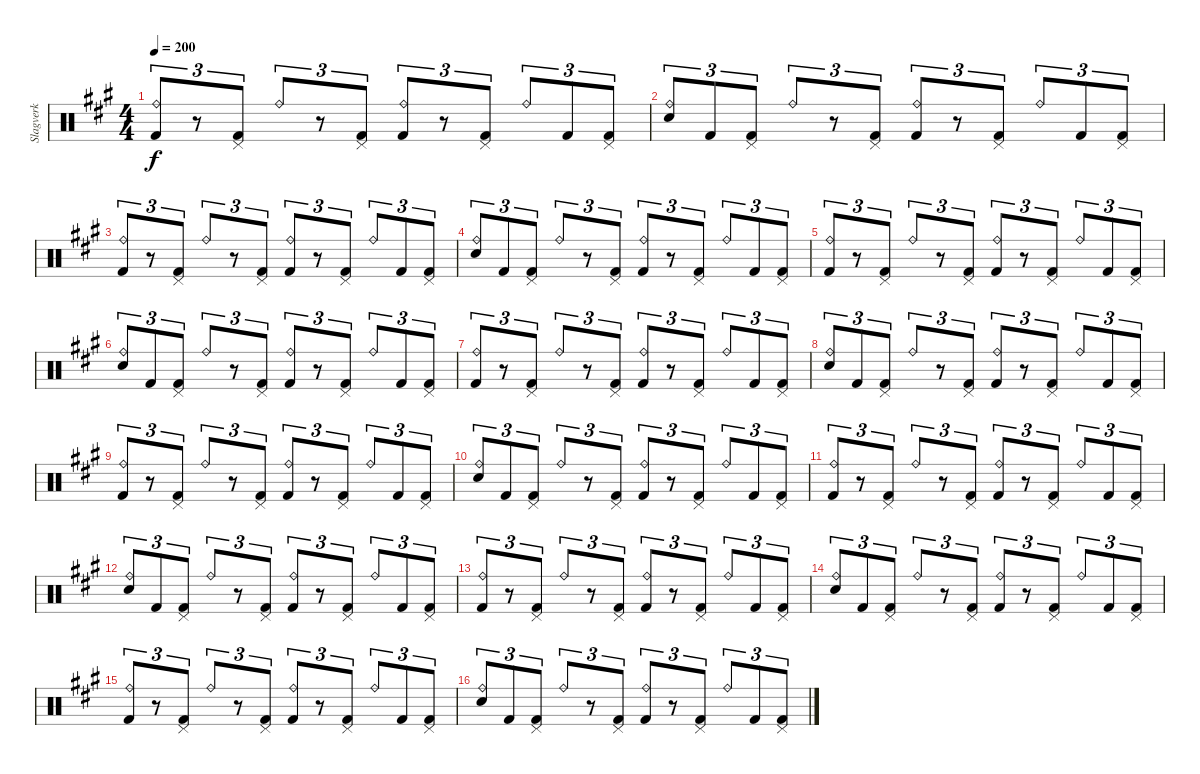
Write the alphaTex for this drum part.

\track ("Slagverk" "Slagverk") {instrument percussion}
\staff {score}
\articulation defaults
\ts (4 4)
\tempo 200
\clef neutral
\ks a
("Ride (bell)" "Kick (hit) 2").8{tu (3 2) dy f} r.8{tu (3 2)} ("Pedal Hi-Hat (hit)" "Kick (hit) 2").8{tu (3 2)} "Ride (bell)".8{tu (3 2)} r.8{tu (3 2)} ("Pedal Hi-Hat (hit)" "Kick (hit) 2").8{tu (3 2)} ("Ride (bell)" "Kick (hit) 2").8{tu (3 2)} r.8{tu (3 2)} ("Pedal Hi-Hat (hit)" "Kick (hit) 2").8{tu (3 2)} "Ride (bell)".8{tu (3 2)} "Kick (hit) 2".8{tu (3 2)} ("Pedal Hi-Hat (hit)" "Kick (hit) 2").8{tu (3 2)} |
("Ride (bell)" "Snare (hit) 2").8{tu (3 2)} "Kick (hit) 2".8{tu (3 2)} ("Pedal Hi-Hat (hit)" "Kick (hit) 2").8{tu (3 2)} "Ride (bell)".8{tu (3 2)} r.8{tu (3 2)} ("Pedal Hi-Hat (hit)" "Kick (hit) 2").8{tu (3 2)} ("Ride (bell)" "Kick (hit) 2").8{tu (3 2)} r.8{tu (3 2)} ("Pedal Hi-Hat (hit)" "Kick (hit) 2").8{tu (3 2)} "Ride (bell)".8{tu (3 2)} "Kick (hit) 2".8{tu (3 2)} ("Pedal Hi-Hat (hit)" "Kick (hit) 2").8{tu (3 2)} |
("Ride (bell)" "Kick (hit) 2").8{tu (3 2)} r.8{tu (3 2)} ("Pedal Hi-Hat (hit)" "Kick (hit) 2").8{tu (3 2)} "Ride (bell)".8{tu (3 2)} r.8{tu (3 2)} ("Pedal Hi-Hat (hit)" "Kick (hit) 2").8{tu (3 2)} ("Ride (bell)" "Kick (hit) 2").8{tu (3 2)} r.8{tu (3 2)} ("Pedal Hi-Hat (hit)" "Kick (hit) 2").8{tu (3 2)} "Ride (bell)".8{tu (3 2)} "Kick (hit) 2".8{tu (3 2)} ("Pedal Hi-Hat (hit)" "Kick (hit) 2").8{tu (3 2)} |
("Ride (bell)" "Snare (hit) 2").8{tu (3 2)} "Kick (hit) 2".8{tu (3 2)} ("Pedal Hi-Hat (hit)" "Kick (hit) 2").8{tu (3 2)} "Ride (bell)".8{tu (3 2)} r.8{tu (3 2)} ("Pedal Hi-Hat (hit)" "Kick (hit) 2").8{tu (3 2)} ("Ride (bell)" "Kick (hit) 2").8{tu (3 2)} r.8{tu (3 2)} ("Pedal Hi-Hat (hit)" "Kick (hit) 2").8{tu (3 2)} "Ride (bell)".8{tu (3 2)} "Kick (hit) 2".8{tu (3 2)} ("Pedal Hi-Hat (hit)" "Kick (hit) 2").8{tu (3 2)} |
("Ride (bell)" "Kick (hit) 2").8{tu (3 2)} r.8{tu (3 2)} ("Pedal Hi-Hat (hit)" "Kick (hit) 2").8{tu (3 2)} "Ride (bell)".8{tu (3 2)} r.8{tu (3 2)} ("Pedal Hi-Hat (hit)" "Kick (hit) 2").8{tu (3 2)} ("Ride (bell)" "Kick (hit) 2").8{tu (3 2)} r.8{tu (3 2)} ("Pedal Hi-Hat (hit)" "Kick (hit) 2").8{tu (3 2)} "Ride (bell)".8{tu (3 2)} "Kick (hit) 2".8{tu (3 2)} ("Pedal Hi-Hat (hit)" "Kick (hit) 2").8{tu (3 2)} |
("Ride (bell)" "Snare (hit) 2").8{tu (3 2)} "Kick (hit) 2".8{tu (3 2)} ("Pedal Hi-Hat (hit)" "Kick (hit) 2").8{tu (3 2)} "Ride (bell)".8{tu (3 2)} r.8{tu (3 2)} ("Pedal Hi-Hat (hit)" "Kick (hit) 2").8{tu (3 2)} ("Ride (bell)" "Kick (hit) 2").8{tu (3 2)} r.8{tu (3 2)} ("Pedal Hi-Hat (hit)" "Kick (hit) 2").8{tu (3 2)} "Ride (bell)".8{tu (3 2)} "Kick (hit) 2".8{tu (3 2)} ("Pedal Hi-Hat (hit)" "Kick (hit) 2").8{tu (3 2)} |
("Ride (bell)" "Kick (hit) 2").8{tu (3 2)} r.8{tu (3 2)} ("Pedal Hi-Hat (hit)" "Kick (hit) 2").8{tu (3 2)} "Ride (bell)".8{tu (3 2)} r.8{tu (3 2)} ("Pedal Hi-Hat (hit)" "Kick (hit) 2").8{tu (3 2)} ("Ride (bell)" "Kick (hit) 2").8{tu (3 2)} r.8{tu (3 2)} ("Pedal Hi-Hat (hit)" "Kick (hit) 2").8{tu (3 2)} "Ride (bell)".8{tu (3 2)} "Kick (hit) 2".8{tu (3 2)} ("Pedal Hi-Hat (hit)" "Kick (hit) 2").8{tu (3 2)} |
("Ride (bell)" "Snare (hit) 2").8{tu (3 2)} "Kick (hit) 2".8{tu (3 2)} ("Pedal Hi-Hat (hit)" "Kick (hit) 2").8{tu (3 2)} "Ride (bell)".8{tu (3 2)} r.8{tu (3 2)} ("Pedal Hi-Hat (hit)" "Kick (hit) 2").8{tu (3 2)} ("Ride (bell)" "Kick (hit) 2").8{tu (3 2)} r.8{tu (3 2)} ("Pedal Hi-Hat (hit)" "Kick (hit) 2").8{tu (3 2)} "Ride (bell)".8{tu (3 2)} "Kick (hit) 2".8{tu (3 2)} ("Pedal Hi-Hat (hit)" "Kick (hit) 2").8{tu (3 2)} |
("Ride (bell)" "Kick (hit) 2").8{tu (3 2)} r.8{tu (3 2)} ("Pedal Hi-Hat (hit)" "Kick (hit) 2").8{tu (3 2)} "Ride (bell)".8{tu (3 2)} r.8{tu (3 2)} ("Pedal Hi-Hat (hit)" "Kick (hit) 2").8{tu (3 2)} ("Ride (bell)" "Kick (hit) 2").8{tu (3 2)} r.8{tu (3 2)} ("Pedal Hi-Hat (hit)" "Kick (hit) 2").8{tu (3 2)} "Ride (bell)".8{tu (3 2)} "Kick (hit) 2".8{tu (3 2)} ("Pedal Hi-Hat (hit)" "Kick (hit) 2").8{tu (3 2)} |
("Ride (bell)" "Snare (hit) 2").8{tu (3 2)} "Kick (hit) 2".8{tu (3 2)} ("Pedal Hi-Hat (hit)" "Kick (hit) 2").8{tu (3 2)} "Ride (bell)".8{tu (3 2)} r.8{tu (3 2)} ("Pedal Hi-Hat (hit)" "Kick (hit) 2").8{tu (3 2)} ("Ride (bell)" "Kick (hit) 2").8{tu (3 2)} r.8{tu (3 2)} ("Pedal Hi-Hat (hit)" "Kick (hit) 2").8{tu (3 2)} "Ride (bell)".8{tu (3 2)} "Kick (hit) 2".8{tu (3 2)} ("Pedal Hi-Hat (hit)" "Kick (hit) 2").8{tu (3 2)} |
("Ride (bell)" "Kick (hit) 2").8{tu (3 2)} r.8{tu (3 2)} ("Pedal Hi-Hat (hit)" "Kick (hit) 2").8{tu (3 2)} "Ride (bell)".8{tu (3 2)} r.8{tu (3 2)} ("Pedal Hi-Hat (hit)" "Kick (hit) 2").8{tu (3 2)} ("Ride (bell)" "Kick (hit) 2").8{tu (3 2)} r.8{tu (3 2)} ("Pedal Hi-Hat (hit)" "Kick (hit) 2").8{tu (3 2)} "Ride (bell)".8{tu (3 2)} "Kick (hit) 2".8{tu (3 2)} ("Pedal Hi-Hat (hit)" "Kick (hit) 2").8{tu (3 2)} |
("Ride (bell)" "Snare (hit) 2").8{tu (3 2)} "Kick (hit) 2".8{tu (3 2)} ("Pedal Hi-Hat (hit)" "Kick (hit) 2").8{tu (3 2)} "Ride (bell)".8{tu (3 2)} r.8{tu (3 2)} ("Pedal Hi-Hat (hit)" "Kick (hit) 2").8{tu (3 2)} ("Ride (bell)" "Kick (hit) 2").8{tu (3 2)} r.8{tu (3 2)} ("Pedal Hi-Hat (hit)" "Kick (hit) 2").8{tu (3 2)} "Ride (bell)".8{tu (3 2)} "Kick (hit) 2".8{tu (3 2)} ("Pedal Hi-Hat (hit)" "Kick (hit) 2").8{tu (3 2)} |
("Ride (bell)" "Kick (hit) 2").8{tu (3 2)} r.8{tu (3 2)} ("Pedal Hi-Hat (hit)" "Kick (hit) 2").8{tu (3 2)} "Ride (bell)".8{tu (3 2)} r.8{tu (3 2)} ("Pedal Hi-Hat (hit)" "Kick (hit) 2").8{tu (3 2)} ("Ride (bell)" "Kick (hit) 2").8{tu (3 2)} r.8{tu (3 2)} ("Pedal Hi-Hat (hit)" "Kick (hit) 2").8{tu (3 2)} "Ride (bell)".8{tu (3 2)} "Kick (hit) 2".8{tu (3 2)} ("Pedal Hi-Hat (hit)" "Kick (hit) 2").8{tu (3 2)} |
("Ride (bell)" "Snare (hit) 2").8{tu (3 2)} "Kick (hit) 2".8{tu (3 2)} ("Pedal Hi-Hat (hit)" "Kick (hit) 2").8{tu (3 2)} "Ride (bell)".8{tu (3 2)} r.8{tu (3 2)} ("Pedal Hi-Hat (hit)" "Kick (hit) 2").8{tu (3 2)} ("Ride (bell)" "Kick (hit) 2").8{tu (3 2)} r.8{tu (3 2)} ("Pedal Hi-Hat (hit)" "Kick (hit) 2").8{tu (3 2)} "Ride (bell)".8{tu (3 2)} "Kick (hit) 2".8{tu (3 2)} ("Pedal Hi-Hat (hit)" "Kick (hit) 2").8{tu (3 2)} |
("Ride (bell)" "Kick (hit) 2").8{tu (3 2)} r.8{tu (3 2)} ("Pedal Hi-Hat (hit)" "Kick (hit) 2").8{tu (3 2)} "Ride (bell)".8{tu (3 2)} r.8{tu (3 2)} ("Pedal Hi-Hat (hit)" "Kick (hit) 2").8{tu (3 2)} ("Ride (bell)" "Kick (hit) 2").8{tu (3 2)} r.8{tu (3 2)} ("Pedal Hi-Hat (hit)" "Kick (hit) 2").8{tu (3 2)} "Ride (bell)".8{tu (3 2)} "Kick (hit) 2".8{tu (3 2)} ("Pedal Hi-Hat (hit)" "Kick (hit) 2").8{tu (3 2)} |
("Ride (bell)" "Snare (hit) 2").8{tu (3 2)} "Kick (hit) 2".8{tu (3 2)} ("Pedal Hi-Hat (hit)" "Kick (hit) 2").8{tu (3 2)} "Ride (bell)".8{tu (3 2)} r.8{tu (3 2)} ("Pedal Hi-Hat (hit)" "Kick (hit) 2").8{tu (3 2)} ("Ride (bell)" "Kick (hit) 2").8{tu (3 2)} r.8{tu (3 2)} ("Pedal Hi-Hat (hit)" "Kick (hit) 2").8{tu (3 2)} "Ride (bell)".8{tu (3 2)} "Kick (hit) 2".8{tu (3 2)} ("Pedal Hi-Hat (hit)" "Kick (hit) 2").8{tu (3 2)}
